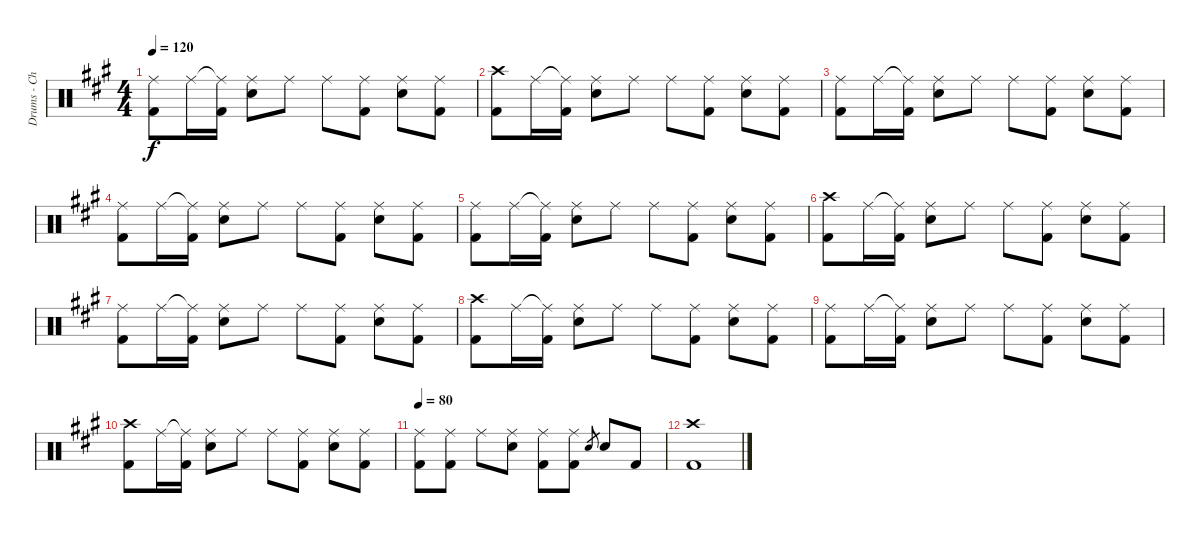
\track ("Drums - Chad S" "Drums - Ch") {instrument percussion}
\staff {score}
\articulation defaults
\ts (4 4)
\tempo 120
\clef neutral
\ks f#minor
("Ride (middle)" "Kick (hit) 2").8{dy f} "Ride (middle)".16 ("Ride (middle)"{t} "Kick (hit) 2").16 ("Ride (middle)" "Snare (hit) 2").8 "Ride (middle)".8 "Ride (middle)".8 ("Ride (middle)" "Kick (hit) 2").8 ("Ride (middle)" "Snare (hit) 2").8 ("Ride (middle)" "Kick (hit) 2").8 |
("Crash high (hit)" "Kick (hit) 2").8 "Ride (middle)".16 ("Ride (middle)"{t} "Kick (hit) 2").16 ("Ride (middle)" "Snare (hit) 2").8 "Ride (middle)".8 "Ride (middle)".8 ("Ride (middle)" "Kick (hit) 2").8 ("Ride (middle)" "Snare (hit) 2").8 ("Ride (middle)" "Kick (hit) 2").8 |
("Ride (middle)" "Kick (hit) 2").8 "Ride (middle)".16 ("Ride (middle)"{t} "Kick (hit) 2").16 ("Ride (middle)" "Snare (hit) 2").8 "Ride (middle)".8 "Ride (middle)".8 ("Ride (middle)" "Kick (hit) 2").8 ("Ride (middle)" "Snare (hit) 2").8 ("Ride (middle)" "Kick (hit) 2").8 |
("Ride (middle)" "Kick (hit) 2").8 "Ride (middle)".16 ("Ride (middle)"{t} "Kick (hit) 2").16 ("Ride (middle)" "Snare (hit) 2").8 "Ride (middle)".8 "Ride (middle)".8 ("Ride (middle)" "Kick (hit) 2").8 ("Ride (middle)" "Snare (hit) 2").8 ("Ride (middle)" "Kick (hit) 2").8 |
("Ride (middle)" "Kick (hit) 2").8 "Ride (middle)".16 ("Ride (middle)"{t} "Kick (hit) 2").16 ("Ride (middle)" "Snare (hit) 2").8 "Ride (middle)".8 "Ride (middle)".8 ("Ride (middle)" "Kick (hit) 2").8 ("Ride (middle)" "Snare (hit) 2").8 ("Ride (middle)" "Kick (hit) 2").8 |
("Crash high (hit)" "Kick (hit) 2").8 "Ride (middle)".16 ("Ride (middle)"{t} "Kick (hit) 2").16 ("Ride (middle)" "Snare (hit) 2").8 "Ride (middle)".8 "Ride (middle)".8 ("Ride (middle)" "Kick (hit) 2").8 ("Ride (middle)" "Snare (hit) 2").8 ("Ride (middle)" "Kick (hit) 2").8 |
("Ride (middle)" "Kick (hit) 2").8 "Ride (middle)".16 ("Ride (middle)"{t} "Kick (hit) 2").16 ("Ride (middle)" "Snare (hit) 2").8 "Ride (middle)".8 "Ride (middle)".8 ("Ride (middle)" "Kick (hit) 2").8 ("Ride (middle)" "Snare (hit) 2").8 ("Ride (middle)" "Kick (hit) 2").8 |
("Crash high (hit)" "Kick (hit) 2").8 "Ride (middle)".16 ("Ride (middle)"{t} "Kick (hit) 2").16 ("Ride (middle)" "Snare (hit) 2").8 "Ride (middle)".8 "Ride (middle)".8 ("Ride (middle)" "Kick (hit) 2").8 ("Ride (middle)" "Snare (hit) 2").8 ("Ride (middle)" "Kick (hit) 2").8 |
("Ride (middle)" "Kick (hit) 2").8 "Ride (middle)".16 ("Ride (middle)"{t} "Kick (hit) 2").16 ("Ride (middle)" "Snare (hit) 2").8 "Ride (middle)".8 "Ride (middle)".8 ("Ride (middle)" "Kick (hit) 2").8 ("Ride (middle)" "Snare (hit) 2").8 ("Ride (middle)" "Kick (hit) 2").8 |
("Crash high (hit)" "Kick (hit) 2").8 "Ride (middle)".16 ("Ride (middle)"{t} "Kick (hit) 2").16 ("Ride (middle)" "Snare (hit) 2").8 "Ride (middle)".8 "Ride (middle)".8 ("Ride (middle)" "Kick (hit) 2").8 ("Ride (middle)" "Snare (hit) 2").8 ("Ride (middle)" "Kick (hit) 2").8 |
\tempo 80
("Ride (middle)" "Kick (hit) 2").8 ("Ride (middle)" "Kick (hit) 2").8 "Ride (middle)".8 ("Ride (middle)" "Snare (hit) 2").8 ("Ride (middle)" "Kick (hit) 2").8 ("Ride (middle)" "Kick (hit) 2").8 "Snare (hit) 2".8{gr} "Snare (hit) 2".8 "Kick (hit) 2".8 |
("Crash high (hit)" "Kick (hit) 2").1
